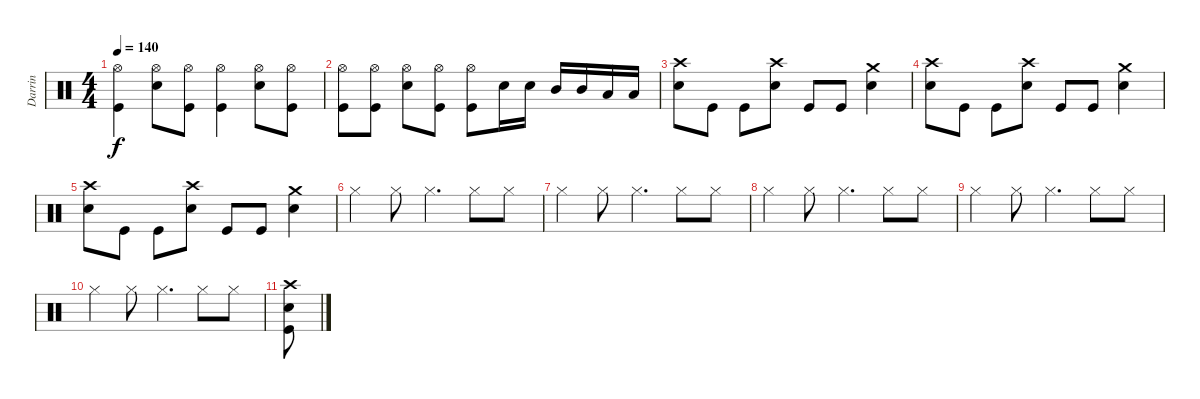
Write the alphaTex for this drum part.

\track ("Darrin" "Darrin") {instrument percussion}
\staff {score}
\articulation defaults
\ts (4 4)
\tempo 140
\clef neutral
\ks c
("Hi-Hat (open)" "Kick (hit)").4{dy f} ("Hi-Hat (open)" "Snare (hit) 2").8 ("Hi-Hat (open)" "Kick (hit)").8 ("Hi-Hat (open)" "Kick (hit)").4 ("Hi-Hat (open)" "Snare (hit) 2").8 ("Hi-Hat (open)" "Kick (hit)").8 |
("Hi-Hat (open)" "Kick (hit)").8 ("Hi-Hat (open)" "Kick (hit)").8 ("Hi-Hat (open)" "Snare (hit) 2").8 ("Hi-Hat (open)" "Kick (hit)").8 ("Hi-Hat (open)" "Kick (hit)").8 "Snare (hit) 2".16 "Snare (hit) 2".16 "Mid Tom (hit)".16 "Mid Tom (hit)".16 "Low Tom (hit)".16 "Low Tom (hit)".16 |
("Crash high (hit)" "Snare (hit) 2").8 "Kick (hit)".8 "Kick (hit)".8 ("Crash high (hit)" "Snare (hit) 2").8 "Kick (hit)".8 "Kick (hit)".8 ("Crash medium (hit)" "Snare (hit) 2").4 |
("Crash high (hit)" "Snare (hit) 2").8 "Kick (hit)".8 "Kick (hit)".8 ("Crash high (hit)" "Snare (hit) 2").8 "Kick (hit)".8 "Kick (hit)".8 ("Crash medium (hit)" "Snare (hit) 2").4 |
("Crash high (hit)" "Snare (hit) 2").8 "Kick (hit)".8 "Kick (hit)".8 ("Crash high (hit)" "Snare (hit) 2").8 "Kick (hit)".8 "Kick (hit)".8 ("Crash medium (hit)" "Snare (hit) 2").4 |
"Hi-Hat (closed)".4 "Hi-Hat (closed)".8 "Hi-Hat (closed)".4{d} "Hi-Hat (closed)".8 "Hi-Hat (closed)".8 |
"Hi-Hat (closed)".4 "Hi-Hat (closed)".8 "Hi-Hat (closed)".4{d} "Hi-Hat (closed)".8 "Hi-Hat (closed)".8 |
"Hi-Hat (closed)".4 "Hi-Hat (closed)".8 "Hi-Hat (closed)".4{d} "Hi-Hat (closed)".8 "Hi-Hat (closed)".8 |
"Hi-Hat (closed)".4 "Hi-Hat (closed)".8 "Hi-Hat (closed)".4{d} "Hi-Hat (closed)".8 "Hi-Hat (closed)".8 |
"Hi-Hat (closed)".4 "Hi-Hat (closed)".8 "Hi-Hat (closed)".4{d} "Hi-Hat (closed)".8 "Hi-Hat (closed)".8 |
("Crash high (hit)" "Snare (hit) 2" "Kick (hit)").8
